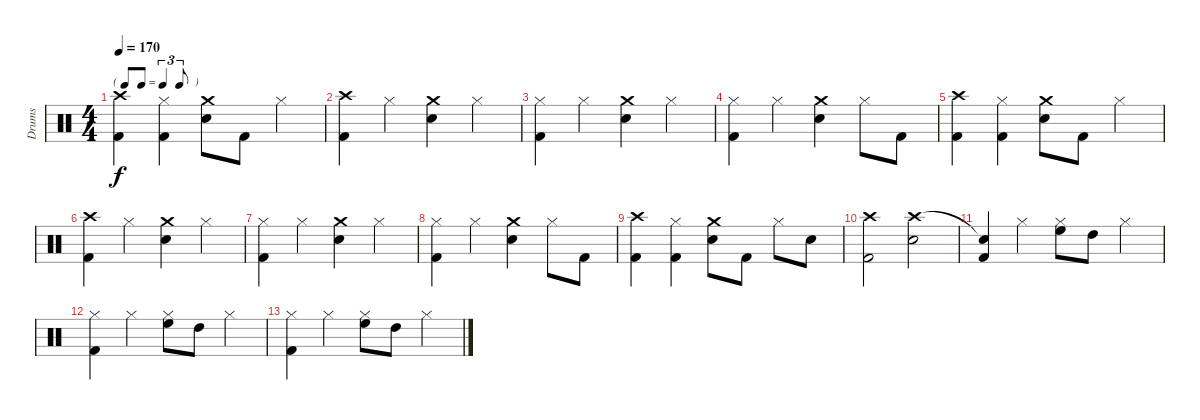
\track ("Drums" "Drums") {instrument percussion}
\staff {score}
\articulation defaults
\ts (4 4)
\tf triplet8th
\tempo 170
\clef neutral
\ks c
("Crash high (hit)" "Kick (hit) 2").4{dy f} ("Hi-Hat (closed)" "Kick (hit) 2").4 ("Crash medium (hit)" "Snare (hit) 2").8 "Kick (hit) 2".8 "Hi-Hat (closed)".4 |
("Crash high (hit)" "Kick (hit) 2").4 "Hi-Hat (closed)".4 ("Crash medium (hit)" "Snare (hit) 2").4 "Hi-Hat (closed)".4 |
("Hi-Hat (closed)" "Kick (hit) 2").4 "Hi-Hat (closed)".4 ("Crash medium (hit)" "Snare (hit) 2").4 "Hi-Hat (closed)".4 |
("Hi-Hat (closed)" "Kick (hit) 2").4 "Hi-Hat (closed)".4 ("Crash medium (hit)" "Snare (hit) 2").4 "Hi-Hat (closed)".8 "Kick (hit) 2".8 |
("Crash high (hit)" "Kick (hit) 2").4 ("Hi-Hat (closed)" "Kick (hit) 2").4 ("Crash medium (hit)" "Snare (hit) 2").8 "Kick (hit) 2".8 "Hi-Hat (closed)".4 |
("Crash high (hit)" "Kick (hit) 2").4 "Hi-Hat (closed)".4 ("Crash medium (hit)" "Snare (hit) 2").4 "Hi-Hat (closed)".4 |
("Hi-Hat (closed)" "Kick (hit) 2").4 "Hi-Hat (closed)".4 ("Crash medium (hit)" "Snare (hit) 2").4 "Hi-Hat (closed)".4 |
("Hi-Hat (closed)" "Kick (hit) 2").4 "Hi-Hat (closed)".4 ("Crash medium (hit)" "Snare (hit) 2").4 "Hi-Hat (closed)".8 "Kick (hit) 2".8 |
("Crash high (hit)" "Kick (hit) 2").4 ("Hi-Hat (closed)" "Kick (hit) 2").4 ("Crash medium (hit)" "Snare (hit) 2").8 "Kick (hit) 2".8 "Hi-Hat (closed)".8 "Snare (hit) 2".8 |
("Crash high (hit)" "Kick (hit) 2").2 ("Crash high (hit)" "Snare (hit) 2").2 |
("Snare (hit)"{t} "Kick (hit) 2").4 "Hi-Hat (closed)".4 ("Hi-Hat (closed)" "High Floor Tom (hit)").8 "High Tom (hit)".8 "Hi-Hat (closed)".4 |
("Hi-Hat (closed)" "Kick (hit) 2").4 "Hi-Hat (closed)".4 ("Hi-Hat (closed)" "High Floor Tom (hit)").8 "High Tom (hit)".8 "Hi-Hat (closed)".4 |
("Hi-Hat (closed)" "Kick (hit) 2").4 "Hi-Hat (closed)".4 ("Hi-Hat (closed)" "High Floor Tom (hit)").8 "High Tom (hit)".8 "Hi-Hat (closed)".4
